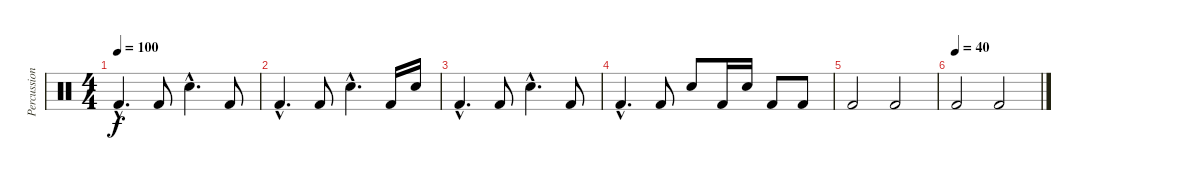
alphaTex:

\track ("Percussioni" "Percussion") {instrument percussion}
\staff {score}
\articulation defaults
\ts (4 4)
\tempo 100
\clef neutral
\ks c "Kick (hit) 2"{hac}.4{d dy f} "Kick (hit) 2".8 "Snare (hit) 2"{hac}.4{d} "Kick (hit) 2".8
|
"Kick (hit) 2"{hac}.4{d} "Kick (hit) 2".8 "Snare (hit) 2"{hac}.4{d} "Kick (hit) 2".16 "Snare (hit) 2".16 |
"Kick (hit) 2"{hac}.4{d} "Kick (hit) 2".8 "Snare (hit) 2"{hac}.4{d} "Kick (hit) 2".8 |
"Kick (hit) 2"{hac}.4{d} "Kick (hit) 2".8 "Snare (hit) 2".8 "Kick (hit) 2".16 "Snare (hit) 2".16 "Kick (hit) 2".8 "Kick (hit) 2".8 |
"Kick (hit) 2".2 "Kick (hit) 2".2 |
\tempo (40)
"Kick (hit) 2".2 "Kick (hit) 2".2
